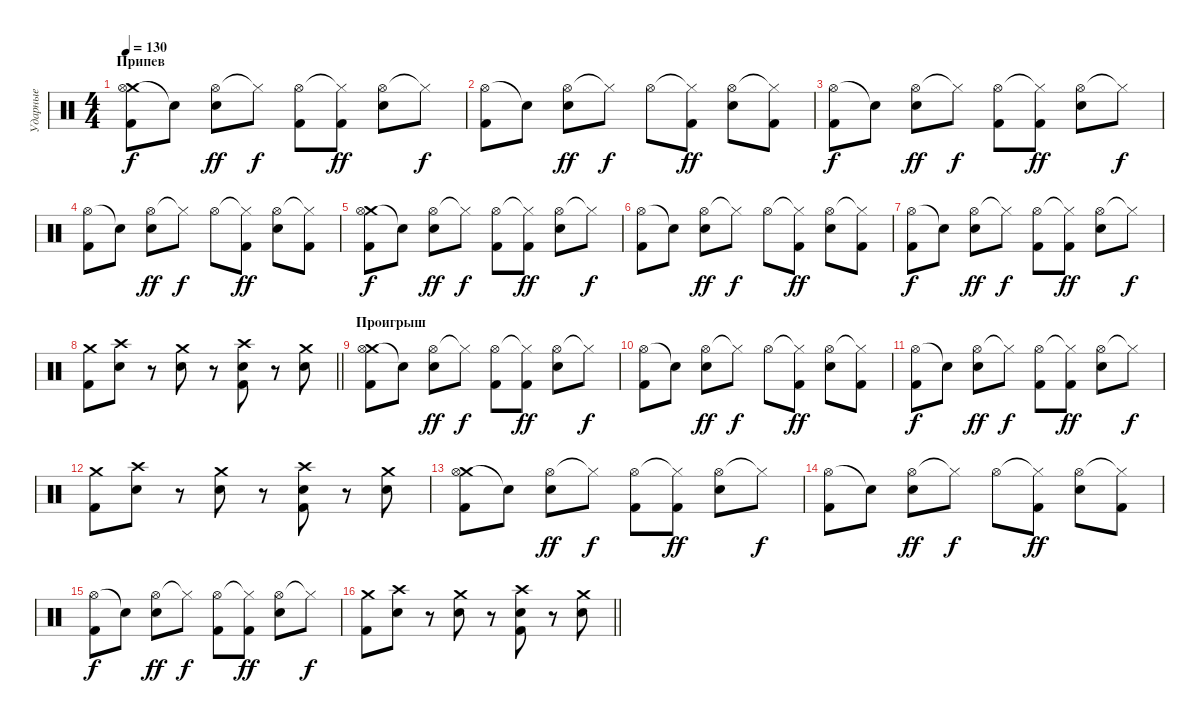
\track ("Ударные" "Ударные") {instrument percussion}
\staff {score}
\articulation defaults
\ts (4 4)
\section ("" "Припев")
\tempo 130
\clef neutral
\ks c
("Crash medium (hit)" "Hi-Hat (open)" "Kick (hit) 2").8{dy f} "Snare (hit)"{t}.8 ("Hi-Hat (open)" "Snare (hit) 2").8{dy ff} "Hi-Hat (closed)"{t}.8{dy f} ("Hi-Hat (open)" "Kick (hit) 2").8 ("Hi-Hat (closed)"{t} "Kick (hit) 2").8{dy ff} ("Hi-Hat (open)" "Snare (hit) 2").8 "Hi-Hat (closed)"{t}.8{dy f} |
("Hi-Hat (open)" "Kick (hit) 2").8 "Snare (hit)"{t}.8 ("Hi-Hat (open)" "Snare (hit) 2").8{dy ff} "Hi-Hat (closed)"{t}.8{dy f} "Hi-Hat (open)".8 ("Hi-Hat (closed)"{t} "Kick (hit) 2").8{dy ff} ("Hi-Hat (open)" "Snare (hit) 2").8 ("Hi-Hat (closed)"{t} "Kick (hit) 2").8 |
("Hi-Hat (open)" "Kick (hit) 2").8{dy f} "Snare (hit)"{t}.8 ("Hi-Hat (open)" "Snare (hit) 2").8{dy ff} "Hi-Hat (closed)"{t}.8{dy f} ("Hi-Hat (open)" "Kick (hit) 2").8 ("Hi-Hat (closed)"{t} "Kick (hit) 2").8{dy ff} ("Hi-Hat (open)" "Snare (hit) 2").8 "Hi-Hat (closed)"{t}.8{dy f} |
("Hi-Hat (open)" "Kick (hit) 2").8 "Snare (hit)"{t}.8 ("Hi-Hat (open)" "Snare (hit) 2").8{dy ff} "Hi-Hat (closed)"{t}.8{dy f} "Hi-Hat (open)".8 ("Hi-Hat (closed)"{t} "Kick (hit) 2").8{dy ff} ("Hi-Hat (open)" "Snare (hit) 2").8 ("Hi-Hat (closed)"{t} "Kick (hit) 2").8 |
("Crash medium (hit)" "Hi-Hat (open)" "Kick (hit) 2").8{dy f} "Snare (hit)"{t}.8 ("Hi-Hat (open)" "Snare (hit) 2").8{dy ff} "Hi-Hat (closed)"{t}.8{dy f} ("Hi-Hat (open)" "Kick (hit) 2").8 ("Hi-Hat (closed)"{t} "Kick (hit) 2").8{dy ff} ("Hi-Hat (open)" "Snare (hit) 2").8 "Hi-Hat (closed)"{t}.8{dy f} |
("Hi-Hat (open)" "Kick (hit) 2").8 "Snare (hit)"{t}.8 ("Hi-Hat (open)" "Snare (hit) 2").8{dy ff} "Hi-Hat (closed)"{t}.8{dy f} "Hi-Hat (open)".8 ("Hi-Hat (closed)"{t} "Kick (hit) 2").8{dy ff} ("Hi-Hat (open)" "Snare (hit) 2").8 ("Hi-Hat (closed)"{t} "Kick (hit) 2").8 |
("Hi-Hat (open)" "Kick (hit) 2").8{dy f} "Snare (hit)"{t}.8 ("Hi-Hat (open)" "Snare (hit) 2").8{dy ff} "Hi-Hat (closed)"{t}.8{dy f} ("Hi-Hat (open)" "Kick (hit) 2").8 ("Hi-Hat (closed)"{t} "Kick (hit) 2").8{dy ff} ("Hi-Hat (open)" "Snare (hit) 2").8 "Hi-Hat (closed)"{t}.8{dy f} |
\barLineRight lightlight
("Crash medium (hit)" "Kick (hit) 2").8 ("Crash high (hit)" "Snare (hit) 2").8 r.8 ("Crash medium (hit)" "Snare (hit) 2").8 r.8 ("Crash high (hit)" "Snare (hit) 2" "Kick (hit) 2").8 r.8 ("Crash medium (hit)" "Snare (hit) 2").8 |
\section ("" "Проигрыш")
("Crash medium (hit)" "Hi-Hat (open)" "Kick (hit) 2").8 "Snare (hit)"{t}.8 ("Hi-Hat (open)" "Snare (hit) 2").8{dy ff} "Hi-Hat (closed)"{t}.8{dy f} ("Hi-Hat (open)" "Kick (hit) 2").8 ("Hi-Hat (closed)"{t} "Kick (hit) 2").8{dy ff} ("Hi-Hat (open)" "Snare (hit) 2").8 "Hi-Hat (closed)"{t}.8{dy f} |
("Hi-Hat (open)" "Kick (hit) 2").8 "Snare (hit)"{t}.8 ("Hi-Hat (open)" "Snare (hit) 2").8{dy ff} "Hi-Hat (closed)"{t}.8{dy f} "Hi-Hat (open)".8 ("Hi-Hat (closed)"{t} "Kick (hit) 2").8{dy ff} ("Hi-Hat (open)" "Snare (hit) 2").8 ("Hi-Hat (closed)"{t} "Kick (hit) 2").8 |
("Hi-Hat (open)" "Kick (hit) 2").8{dy f} "Snare (hit)"{t}.8 ("Hi-Hat (open)" "Snare (hit) 2").8{dy ff} "Hi-Hat (closed)"{t}.8{dy f} ("Hi-Hat (open)" "Kick (hit) 2").8 ("Hi-Hat (closed)"{t} "Kick (hit) 2").8{dy ff} ("Hi-Hat (open)" "Snare (hit) 2").8 "Hi-Hat (closed)"{t}.8{dy f} |
("Crash medium (hit)" "Kick (hit) 2").8 ("Crash high (hit)" "Snare (hit) 2").8 r.8 ("Crash medium (hit)" "Snare (hit) 2").8 r.8 ("Crash high (hit)" "Snare (hit) 2" "Kick (hit) 2").8 r.8 ("Crash medium (hit)" "Snare (hit) 2").8 |
("Crash medium (hit)" "Hi-Hat (open)" "Kick (hit) 2").8 "Snare (hit)"{t}.8 ("Hi-Hat (open)" "Snare (hit) 2").8{dy ff} "Hi-Hat (closed)"{t}.8{dy f} ("Hi-Hat (open)" "Kick (hit) 2").8 ("Hi-Hat (closed)"{t} "Kick (hit) 2").8{dy ff} ("Hi-Hat (open)" "Snare (hit) 2").8 "Hi-Hat (closed)"{t}.8{dy f} |
("Hi-Hat (open)" "Kick (hit) 2").8 "Snare (hit)"{t}.8 ("Hi-Hat (open)" "Snare (hit) 2").8{dy ff} "Hi-Hat (closed)"{t}.8{dy f} "Hi-Hat (open)".8 ("Hi-Hat (closed)"{t} "Kick (hit) 2").8{dy ff} ("Hi-Hat (open)" "Snare (hit) 2").8 ("Hi-Hat (closed)"{t} "Kick (hit) 2").8 |
("Hi-Hat (open)" "Kick (hit) 2").8{dy f} "Snare (hit)"{t}.8 ("Hi-Hat (open)" "Snare (hit) 2").8{dy ff} "Hi-Hat (closed)"{t}.8{dy f} ("Hi-Hat (open)" "Kick (hit) 2").8 ("Hi-Hat (closed)"{t} "Kick (hit) 2").8{dy ff} ("Hi-Hat (open)" "Snare (hit) 2").8 "Hi-Hat (closed)"{t}.8{dy f} |
\barLineRight lightlight
("Crash medium (hit)" "Kick (hit) 2").8 ("Crash high (hit)" "Snare (hit) 2").8 r.8 ("Crash medium (hit)" "Snare (hit) 2").8 r.8 ("Crash high (hit)" "Snare (hit) 2" "Kick (hit) 2").8 r.8 ("Crash medium (hit)" "Snare (hit) 2").8
